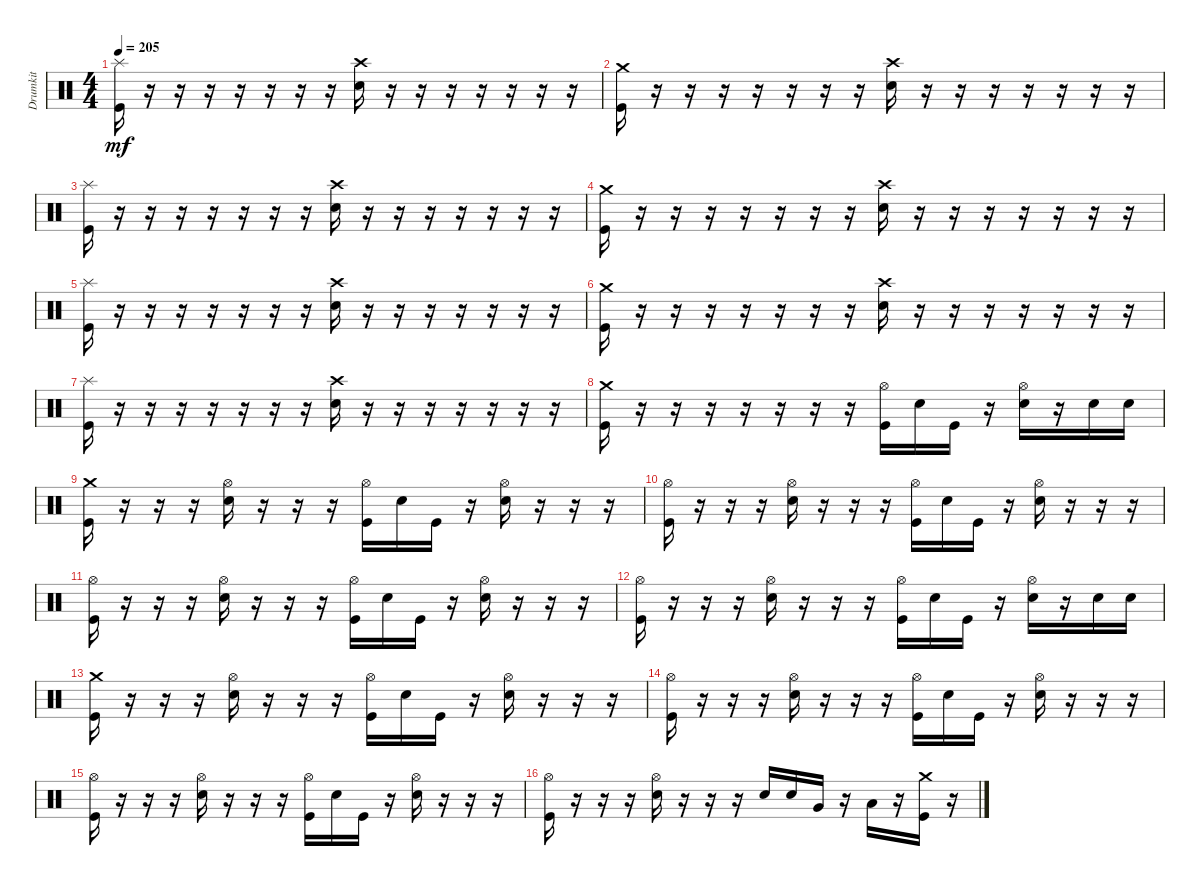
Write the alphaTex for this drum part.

\track ("Drumkit" "Drumkit") {instrument percussion}
\staff {score}
\articulation defaults
\ts (4 4)
\tempo 205
\clef neutral
\ks c
("Kick (hit)" "Splash (hit)").16{dy mf} r.16 r.16 r.16 r.16 r.16 r.16 r.16 ("Crash high (hit)" "Snare (hit) 2").16 r.16 r.16 r.16 r.16 r.16 r.16 r.16 |
("Kick (hit)" "Crash medium (hit)").16 r.16 r.16 r.16 r.16 r.16 r.16 r.16 ("Crash high (hit)" "Snare (hit) 2").16 r.16 r.16 r.16 r.16 r.16 r.16 r.16 |
("Kick (hit)" "Splash (hit)").16 r.16 r.16 r.16 r.16 r.16 r.16 r.16 ("Crash high (hit)" "Snare (hit) 2").16 r.16 r.16 r.16 r.16 r.16 r.16 r.16 |
("Kick (hit)" "Crash medium (hit)").16 r.16 r.16 r.16 r.16 r.16 r.16 r.16 ("Crash high (hit)" "Snare (hit) 2").16 r.16 r.16 r.16 r.16 r.16 r.16 r.16 |
("Kick (hit)" "Splash (hit)").16 r.16 r.16 r.16 r.16 r.16 r.16 r.16 ("Crash high (hit)" "Snare (hit) 2").16 r.16 r.16 r.16 r.16 r.16 r.16 r.16 |
("Kick (hit)" "Crash medium (hit)").16 r.16 r.16 r.16 r.16 r.16 r.16 r.16 ("Crash high (hit)" "Snare (hit) 2").16 r.16 r.16 r.16 r.16 r.16 r.16 r.16 |
("Kick (hit)" "Splash (hit)").16 r.16 r.16 r.16 r.16 r.16 r.16 r.16 ("Crash high (hit)" "Snare (hit) 2").16 r.16 r.16 r.16 r.16 r.16 r.16 r.16 |
("Kick (hit)" "Crash medium (hit)").16 r.16 r.16 r.16 r.16 r.16 r.16 r.16 ("Kick (hit)" "Hi-Hat (open)").16 "Snare (hit) 2".16 "Kick (hit)".16 r.16 ("Snare (hit) 2" "Hi-Hat (open)").16 r.16 "Snare (hit) 2".16 "Snare (hit) 2".16 |
("Kick (hit)" "Crash medium (hit)").16 r.16 r.16 r.16 ("Snare (hit) 2" "Hi-Hat (open)").16 r.16 r.16 r.16 ("Hi-Hat (open)" "Kick (hit)").16 "Snare (hit) 2".16 "Kick (hit)".16 r.16 ("Hi-Hat (open)" "Snare (hit) 2").16 r.16 r.16 r.16 |
("Kick (hit)" "Hi-Hat (open)").16 r.16 r.16 r.16 ("Snare (hit) 2" "Hi-Hat (open)").16 r.16 r.16 r.16 ("Kick (hit)" "Hi-Hat (open)").16 "Snare (hit) 2".16 "Kick (hit)".16 r.16 ("Snare (hit) 2" "Hi-Hat (open)").16 r.16 r.16 r.16 |
("Kick (hit)" "Hi-Hat (open)").16 r.16 r.16 r.16 ("Snare (hit) 2" "Hi-Hat (open)").16 r.16 r.16 r.16 ("Kick (hit)" "Hi-Hat (open)").16 "Snare (hit) 2".16 "Kick (hit)".16 r.16 ("Snare (hit) 2" "Hi-Hat (open)").16 r.16 r.16 r.16 |
("Kick (hit)" "Hi-Hat (open)").16 r.16 r.16 r.16 ("Snare (hit) 2" "Hi-Hat (open)").16 r.16 r.16 r.16 ("Kick (hit)" "Hi-Hat (open)").16 "Snare (hit) 2".16 "Kick (hit)".16 r.16 ("Snare (hit) 2" "Hi-Hat (open)").16 r.16 "Snare (hit) 2".16 "Snare (hit) 2".16 |
("Kick (hit)" "Crash medium (hit)").16 r.16 r.16 r.16 ("Snare (hit) 2" "Hi-Hat (open)").16 r.16 r.16 r.16 ("Kick (hit)" "Hi-Hat (open)").16 "Snare (hit) 2".16 "Kick (hit)".16 r.16 ("Snare (hit) 2" "Hi-Hat (open)").16 r.16 r.16 r.16 |
("Kick (hit)" "Hi-Hat (open)").16 r.16 r.16 r.16 ("Snare (hit) 2" "Hi-Hat (open)").16 r.16 r.16 r.16 ("Kick (hit)" "Hi-Hat (open)").16 "Snare (hit) 2".16 "Kick (hit)".16 r.16 ("Snare (hit) 2" "Hi-Hat (open)").16 r.16 r.16 r.16 |
("Kick (hit)" "Hi-Hat (open)").16 r.16 r.16 r.16 ("Snare (hit) 2" "Hi-Hat (open)").16 r.16 r.16 r.16 ("Kick (hit)" "Hi-Hat (open)").16 "Snare (hit) 2".16 "Kick (hit)".16 r.16 ("Snare (hit) 2" "Hi-Hat (open)").16 r.16 r.16 r.16 |
("Kick (hit)" "Hi-Hat (open)").16 r.16 r.16 r.16 ("Snare (hit) 2" "Hi-Hat (open)").16 r.16 r.16 r.16 "Snare (hit) 2".16 "Snare (hit) 2".16 "Very Low Tom (hit)".16 r.16 "Low Floor Tom (hit)".16 r.16 ("Crash medium (hit)" "Kick (hit)").16 r.16
